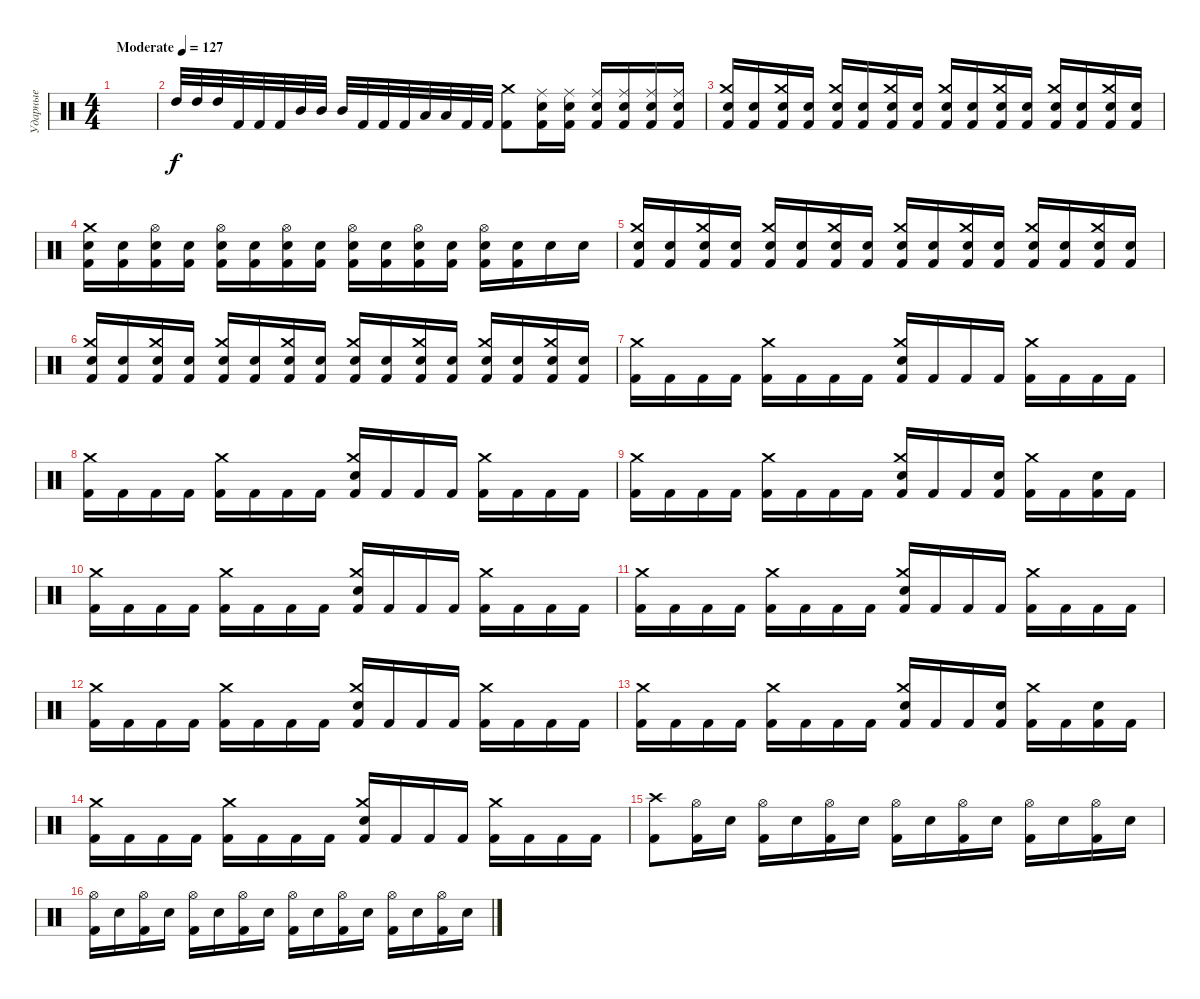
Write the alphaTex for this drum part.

\track ("Ударные" "Ударные") {instrument percussion bank 1}
\staff {score}
\articulation defaults
\ts (4 4)
\tempo (127 "Moderate")
\clef neutral
\ks c
|
"High Tom (hit)".32 "High Tom (hit)".32 "High Tom (hit)".32 "Kick (hit) 2".32 "Kick (hit) 2".32 "Kick (hit) 2".32 "Mid Tom (hit)".32 "Mid Tom (hit)".32 "Mid Tom (hit)".32 "Kick (hit) 2".32 "Kick (hit) 2".32 "Kick (hit) 2".32 "Low Tom (hit)".32 "Low Tom (hit)".32 "Kick (hit) 2".32 "Kick (hit) 2".32 ("Crash medium (hit)" "Kick (hit) 2").8 ("Ride (middle)" "Electric Snare (hit)" "Kick (hit) 2").16 ("Ride (middle)" "Electric Snare (hit)" "Kick (hit) 2").16 ("Ride (middle)" "Electric Snare (hit)" "Kick (hit) 2").16 ("Ride (middle)" "Electric Snare (hit)" "Kick (hit) 2").16 ("Ride (middle)" "Electric Snare (hit)" "Kick (hit) 2").16 ("Ride (middle)" "Electric Snare (hit)" "Kick (hit) 2").16 |
("Crash medium (hit)" "Electric Snare (hit)" "Kick (hit) 2").16 ("Electric Snare (hit)" "Kick (hit) 2").16 ("Crash medium (hit)" "Electric Snare (hit)" "Kick (hit) 2").16 ("Electric Snare (hit)" "Kick (hit) 2").16 ("Crash medium (hit)" "Electric Snare (hit)" "Kick (hit) 2").16 ("Electric Snare (hit)" "Kick (hit) 2").16 ("Crash medium (hit)" "Electric Snare (hit)" "Kick (hit) 2").16 ("Electric Snare (hit)" "Kick (hit) 2").16 ("Crash medium (hit)" "Electric Snare (hit)" "Kick (hit) 2").16 ("Electric Snare (hit)" "Kick (hit) 2").16 ("Crash medium (hit)" "Electric Snare (hit)" "Kick (hit) 2").16 ("Electric Snare (hit)" "Kick (hit) 2").16 ("Crash medium (hit)" "Electric Snare (hit)" "Kick (hit) 2").16 ("Electric Snare (hit)" "Kick (hit) 2").16 ("Crash medium (hit)" "Electric Snare (hit)" "Kick (hit) 2").16 ("Electric Snare (hit)" "Kick (hit) 2").16 |
("Crash medium (hit)" "Electric Snare (hit)" "Kick (hit) 2").16 ("Electric Snare (hit)" "Kick (hit) 2").16 ("Hi-Hat (open)" "Electric Snare (hit)" "Kick (hit) 2").16 ("Electric Snare (hit)" "Kick (hit) 2").16 ("Hi-Hat (open)" "Electric Snare (hit)" "Kick (hit) 2").16 ("Electric Snare (hit)" "Kick (hit) 2").16 ("Hi-Hat (open)" "Electric Snare (hit)" "Kick (hit) 2").16 ("Electric Snare (hit)" "Kick (hit) 2").16 ("Hi-Hat (open)" "Electric Snare (hit)" "Kick (hit) 2").16 ("Electric Snare (hit)" "Kick (hit) 2").16 ("Hi-Hat (open)" "Electric Snare (hit)" "Kick (hit) 2").16 ("Electric Snare (hit)" "Kick (hit) 2").16 ("Hi-Hat (open)" "Electric Snare (hit)" "Kick (hit) 2").16 ("Electric Snare (hit)" "Kick (hit) 2").16 "Electric Snare (hit)".16 "Electric Snare (hit)".16 |
("Crash medium (hit)" "Electric Snare (hit)" "Kick (hit) 2").16 ("Electric Snare (hit)" "Kick (hit) 2").16 ("Crash medium (hit)" "Electric Snare (hit)" "Kick (hit) 2").16 ("Electric Snare (hit)" "Kick (hit) 2").16 ("Crash medium (hit)" "Electric Snare (hit)" "Kick (hit) 2").16 ("Electric Snare (hit)" "Kick (hit) 2").16 ("Crash medium (hit)" "Electric Snare (hit)" "Kick (hit) 2").16 ("Electric Snare (hit)" "Kick (hit) 2").16 ("Crash medium (hit)" "Electric Snare (hit)" "Kick (hit) 2").16 ("Electric Snare (hit)" "Kick (hit) 2").16 ("Crash medium (hit)" "Electric Snare (hit)" "Kick (hit) 2").16 ("Electric Snare (hit)" "Kick (hit) 2").16 ("Crash medium (hit)" "Electric Snare (hit)" "Kick (hit) 2").16 ("Electric Snare (hit)" "Kick (hit) 2").16 ("Crash medium (hit)" "Electric Snare (hit)" "Kick (hit) 2").16 ("Electric Snare (hit)" "Kick (hit) 2").16 |
("Crash medium (hit)" "Electric Snare (hit)" "Kick (hit) 2").16 ("Electric Snare (hit)" "Kick (hit) 2").16 ("Crash medium (hit)" "Electric Snare (hit)" "Kick (hit) 2").16 ("Electric Snare (hit)" "Kick (hit) 2").16 ("Crash medium (hit)" "Electric Snare (hit)" "Kick (hit) 2").16 ("Electric Snare (hit)" "Kick (hit) 2").16 ("Crash medium (hit)" "Electric Snare (hit)" "Kick (hit) 2").16 ("Electric Snare (hit)" "Kick (hit) 2").16 ("Crash medium (hit)" "Electric Snare (hit)" "Kick (hit) 2").16 ("Electric Snare (hit)" "Kick (hit) 2").16 ("Crash medium (hit)" "Electric Snare (hit)" "Kick (hit) 2").16 ("Electric Snare (hit)" "Kick (hit) 2").16 ("Crash medium (hit)" "Electric Snare (hit)" "Kick (hit) 2").16 ("Electric Snare (hit)" "Kick (hit) 2").16 ("Crash medium (hit)" "Electric Snare (hit)" "Kick (hit) 2").16 ("Electric Snare (hit)" "Kick (hit) 2").16 |
("Crash medium (hit)" "Kick (hit) 2").16 "Kick (hit) 2".16 "Kick (hit) 2".16 "Kick (hit) 2".16 ("Crash medium (hit)" "Kick (hit) 2").16 "Kick (hit) 2".16 "Kick (hit) 2".16 "Kick (hit) 2".16 ("Crash medium (hit)" "Electric Snare (hit)" "Kick (hit) 2").16 "Kick (hit) 2".16 "Kick (hit) 2".16 "Kick (hit) 2".16 ("Crash medium (hit)" "Kick (hit) 2").16 "Kick (hit) 2".16 "Kick (hit) 2".16 "Kick (hit) 2".16 |
("Crash medium (hit)" "Kick (hit) 2").16 "Kick (hit) 2".16 "Kick (hit) 2".16 "Kick (hit) 2".16 ("Crash medium (hit)" "Kick (hit) 2").16 "Kick (hit) 2".16 "Kick (hit) 2".16 "Kick (hit) 2".16 ("Crash medium (hit)" "Electric Snare (hit)" "Kick (hit) 2").16 "Kick (hit) 2".16 "Kick (hit) 2".16 "Kick (hit) 2".16 ("Crash medium (hit)" "Kick (hit) 2").16 "Kick (hit) 2".16 "Kick (hit) 2".16 "Kick (hit) 2".16 |
("Crash medium (hit)" "Kick (hit) 2").16 "Kick (hit) 2".16 "Kick (hit) 2".16 "Kick (hit) 2".16 ("Crash medium (hit)" "Kick (hit) 2").16 "Kick (hit) 2".16 "Kick (hit) 2".16 "Kick (hit) 2".16 ("Crash medium (hit)" "Electric Snare (hit)" "Kick (hit) 2").16 "Kick (hit) 2".16 "Kick (hit) 2".16 ("Electric Snare (hit)" "Kick (hit) 2").16 ("Crash medium (hit)" "Kick (hit) 2").16 "Kick (hit) 2".16 ("Electric Snare (hit)" "Kick (hit) 2").16 "Kick (hit) 2".16 |
("Crash medium (hit)" "Kick (hit) 2").16 "Kick (hit) 2".16 "Kick (hit) 2".16 "Kick (hit) 2".16 ("Crash medium (hit)" "Kick (hit) 2").16 "Kick (hit) 2".16 "Kick (hit) 2".16 "Kick (hit) 2".16 ("Crash medium (hit)" "Electric Snare (hit)" "Kick (hit) 2").16 "Kick (hit) 2".16 "Kick (hit) 2".16 "Kick (hit) 2".16 ("Crash medium (hit)" "Kick (hit) 2").16 "Kick (hit) 2".16 "Kick (hit) 2".16 "Kick (hit) 2".16 |
("Crash medium (hit)" "Kick (hit) 2").16 "Kick (hit) 2".16 "Kick (hit) 2".16 "Kick (hit) 2".16 ("Crash medium (hit)" "Kick (hit) 2").16 "Kick (hit) 2".16 "Kick (hit) 2".16 "Kick (hit) 2".16 ("Crash medium (hit)" "Electric Snare (hit)" "Kick (hit) 2").16 "Kick (hit) 2".16 "Kick (hit) 2".16 "Kick (hit) 2".16 ("Crash medium (hit)" "Kick (hit) 2").16 "Kick (hit) 2".16 "Kick (hit) 2".16 "Kick (hit) 2".16 |
("Crash medium (hit)" "Kick (hit) 2").16 "Kick (hit) 2".16 "Kick (hit) 2".16 "Kick (hit) 2".16 ("Crash medium (hit)" "Kick (hit) 2").16 "Kick (hit) 2".16 "Kick (hit) 2".16 "Kick (hit) 2".16 ("Crash medium (hit)" "Electric Snare (hit)" "Kick (hit) 2").16 "Kick (hit) 2".16 "Kick (hit) 2".16 "Kick (hit) 2".16 ("Crash medium (hit)" "Kick (hit) 2").16 "Kick (hit) 2".16 "Kick (hit) 2".16 "Kick (hit) 2".16 |
("Crash medium (hit)" "Kick (hit) 2").16 "Kick (hit) 2".16 "Kick (hit) 2".16 "Kick (hit) 2".16 ("Crash medium (hit)" "Kick (hit) 2").16 "Kick (hit) 2".16 "Kick (hit) 2".16 "Kick (hit) 2".16 ("Crash medium (hit)" "Electric Snare (hit)" "Kick (hit) 2").16 "Kick (hit) 2".16 "Kick (hit) 2".16 ("Electric Snare (hit)" "Kick (hit) 2").16 ("Crash medium (hit)" "Kick (hit) 2").16 "Kick (hit) 2".16 ("Electric Snare (hit)" "Kick (hit) 2").16 "Kick (hit) 2".16 |
("Crash medium (hit)" "Kick (hit) 2").16 "Kick (hit) 2".16 "Kick (hit) 2".16 "Kick (hit) 2".16 ("Crash medium (hit)" "Kick (hit) 2").16 "Kick (hit) 2".16 "Kick (hit) 2".16 "Kick (hit) 2".16 ("Crash medium (hit)" "Electric Snare (hit)" "Kick (hit) 2").16 "Kick (hit) 2".16 "Kick (hit) 2".16 "Kick (hit) 2".16 ("Crash medium (hit)" "Kick (hit) 2").16 "Kick (hit) 2".16 "Kick (hit) 2".16 "Kick (hit) 2".16 |
("Crash high (hit)" "Kick (hit) 2").8 ("Hi-Hat (open)" "Kick (hit) 2").16 "Electric Snare (hit)".16 ("Hi-Hat (open)" "Kick (hit) 2").16 "Electric Snare (hit)".16 ("Hi-Hat (open)" "Kick (hit) 2").16 "Electric Snare (hit)".16 ("Hi-Hat (open)" "Kick (hit) 2").16 "Electric Snare (hit)".16 ("Hi-Hat (open)" "Kick (hit) 2").16 "Electric Snare (hit)".16 ("Hi-Hat (open)" "Kick (hit) 2").16 "Electric Snare (hit)".16 ("Hi-Hat (open)" "Kick (hit) 2").16 "Electric Snare (hit)".16 |
("Hi-Hat (open)" "Kick (hit) 2").16 "Electric Snare (hit)".16 ("Hi-Hat (open)" "Kick (hit) 2").16 "Electric Snare (hit)".16 ("Hi-Hat (open)" "Kick (hit) 2").16 "Electric Snare (hit)".16 ("Hi-Hat (open)" "Kick (hit) 2").16 "Electric Snare (hit)".16 ("Hi-Hat (open)" "Kick (hit) 2").16 "Electric Snare (hit)".16 ("Hi-Hat (open)" "Kick (hit) 2").16 "Electric Snare (hit)".16 ("Hi-Hat (open)" "Kick (hit) 2").16 "Electric Snare (hit)".16 ("Hi-Hat (open)" "Kick (hit) 2").16 "Electric Snare (hit)".16
